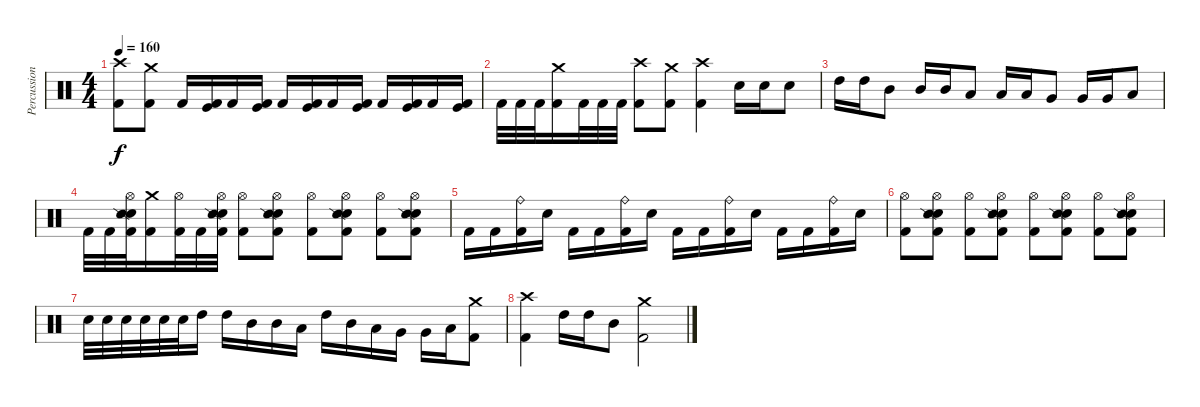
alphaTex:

\track ("Percussion" "Percussion") {instrument percussion}
\staff {score}
\articulation defaults
\ts (4 4)
\tempo 160
\clef neutral
\ks c
("Crash high (hit)" "Kick (hit) 2").8{dy f} ("Crash medium (hit)" "Kick (hit) 2").8 "Kick (hit) 2".16 ("Kick (hit)" "Kick (hit) 2").16 "Kick (hit) 2".16 ("Kick (hit)" "Kick (hit) 2").16 "Kick (hit) 2".16 ("Kick (hit)" "Kick (hit) 2").16 "Kick (hit) 2".16 ("Kick (hit)" "Kick (hit) 2").16 "Kick (hit) 2".16 ("Kick (hit)" "Kick (hit) 2").16 "Kick (hit) 2".16 ("Kick (hit)" "Kick (hit) 2").16 |
"Kick (hit) 2".32 "Kick (hit) 2".32 "Kick (hit) 2".32 ("Crash medium (hit)" "Kick (hit) 2").16 "Kick (hit) 2".32 "Kick (hit) 2".32 "Kick (hit) 2".32 ("Crash high (hit)" "Kick (hit) 2").8 ("Crash medium (hit)" "Kick (hit) 2").8 ("Crash high (hit)" "Kick (hit) 2").4 "Electric Snare (hit)".16 "Electric Snare (hit)".16 "Electric Snare (hit)".8 |
"High Tom (hit)".16 "High Tom (hit)".16 "Mid Tom (hit)".8 "Mid Tom (hit)".16 "Mid Tom (hit)".16 "Low Tom (hit)".8 "Low Tom (hit)".16 "Low Tom (hit)".16 "Very Low Tom (hit)".8 "Very Low Tom (hit)".16 "Very Low Tom (hit)".16 "Low Floor Tom (hit)".8 |
"Kick (hit) 2".32 "Kick (hit) 2".32 ("Hi-Hat (open)" "Electric Snare (hit)" "Snare (side stick) 2" "Kick (hit) 2").32 ("Crash medium (hit)" "Kick (hit) 2").16 ("Hi-Hat (open)" "Kick (hit) 2").32 "Kick (hit) 2".32 ("Hi-Hat (open)" "Electric Snare (hit)" "Snare (side stick) 2" "Kick (hit) 2").32 ("Hi-Hat (open)" "Kick (hit) 2").8 ("Hi-Hat (open)" "Electric Snare (hit)" "Snare (side stick) 2" "Kick (hit) 2").8 ("Hi-Hat (open)" "Kick (hit) 2").8 ("Hi-Hat (open)" "Electric Snare (hit)" "Snare (side stick) 2" "Kick (hit) 2").8 ("Hi-Hat (open)" "Kick (hit) 2").8 ("Hi-Hat (open)" "Electric Snare (hit)" "Snare (side stick) 2" "Kick (hit) 2").8 |
"Kick (hit) 2".16 "Kick (hit) 2".16 ("Ride (bell)" "Kick (hit) 2").16 "Electric Snare (hit)".16 "Kick (hit) 2".16 "Kick (hit) 2".16 ("Ride (bell)" "Kick (hit) 2").16 "Electric Snare (hit)".16 "Kick (hit) 2".16 "Kick (hit) 2".16 ("Ride (bell)" "Kick (hit) 2").16 "Electric Snare (hit)".16 "Kick (hit) 2".16 "Kick (hit) 2".16 ("Ride (bell)" "Kick (hit) 2").16 "Electric Snare (hit)".16 |
("Hi-Hat (open)" "Kick (hit) 2").8 ("Hi-Hat (open)" "Electric Snare (hit)" "Snare (side stick) 2" "Kick (hit) 2").8 ("Hi-Hat (open)" "Kick (hit) 2").8 ("Hi-Hat (open)" "Electric Snare (hit)" "Snare (side stick) 2" "Kick (hit) 2").8 ("Hi-Hat (open)" "Kick (hit) 2").8 ("Hi-Hat (open)" "Electric Snare (hit)" "Snare (side stick) 2" "Kick (hit) 2").8 ("Hi-Hat (open)" "Kick (hit) 2").8 ("Hi-Hat (open)" "Electric Snare (hit)" "Snare (side stick) 2" "Kick (hit) 2").8 |
"Electric Snare (hit)".32 "Electric Snare (hit)".32 "Electric Snare (hit)".32 "Electric Snare (hit)".32 "Electric Snare (hit)".32 "Electric Snare (hit)".32 "High Tom (hit)".16 "High Tom (hit)".16 "Mid Tom (hit)".16 "Mid Tom (hit)".16 "Low Tom (hit)".16 "High Tom (hit)".16 "Mid Tom (hit)".16 "Low Tom (hit)".16 "Very Low Tom (hit)".16 "Very Low Tom (hit)".16 "Low Floor Tom (hit)".16 ("Crash medium (hit)" "Kick (hit) 2").8 |
("Crash high (hit)" "Kick (hit) 2").4 "High Tom (hit)".16 "High Tom (hit)".16 "Mid Tom (hit)".8 ("Crash medium (hit)" "Kick (hit) 2").2
